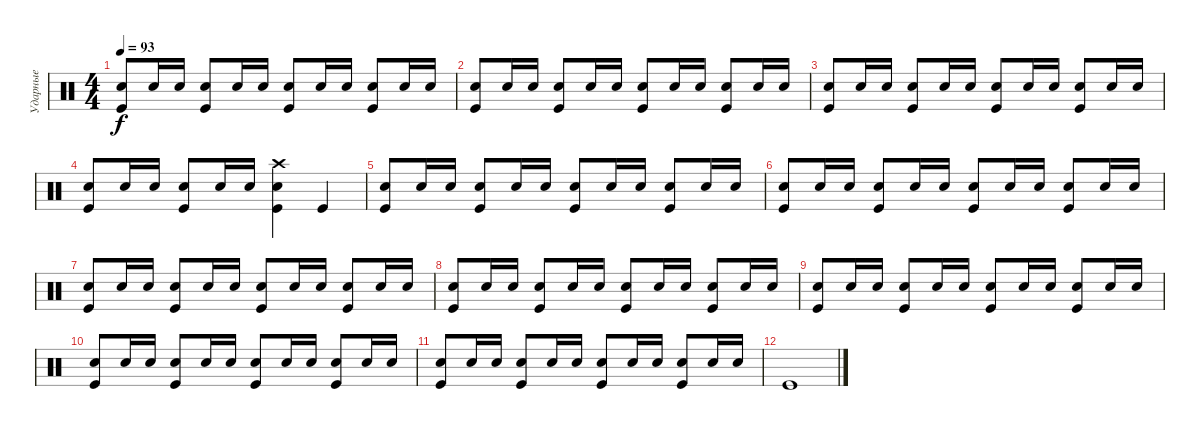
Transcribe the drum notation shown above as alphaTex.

\track ("Ударные" "Ударные") {instrument percussion}
\staff {score}
\articulation defaults
\ts (4 4)
\tempo 93
\clef neutral
\ks c
("Electric Snare (hit)" "Kick (hit)").8{dy f} "Electric Snare (hit)".16 "Electric Snare (hit)".16 ("Electric Snare (hit)" "Kick (hit)").8 "Electric Snare (hit)".16 "Electric Snare (hit)".16 ("Electric Snare (hit)" "Kick (hit)").8 "Electric Snare (hit)".16 "Electric Snare (hit)".16 ("Electric Snare (hit)" "Kick (hit)").8 "Electric Snare (hit)".16 "Electric Snare (hit)".16 |
("Electric Snare (hit)" "Kick (hit)").8 "Electric Snare (hit)".16 "Electric Snare (hit)".16 ("Electric Snare (hit)" "Kick (hit)").8 "Electric Snare (hit)".16 "Electric Snare (hit)".16 ("Electric Snare (hit)" "Kick (hit)").8 "Electric Snare (hit)".16 "Electric Snare (hit)".16 ("Electric Snare (hit)" "Kick (hit)").8 "Electric Snare (hit)".16 "Electric Snare (hit)".16 |
("Electric Snare (hit)" "Kick (hit)").8 "Electric Snare (hit)".16 "Electric Snare (hit)".16 ("Electric Snare (hit)" "Kick (hit)").8 "Electric Snare (hit)".16 "Electric Snare (hit)".16 ("Electric Snare (hit)" "Kick (hit)").8 "Electric Snare (hit)".16 "Electric Snare (hit)".16 ("Electric Snare (hit)" "Kick (hit)").8 "Electric Snare (hit)".16 "Electric Snare (hit)".16 |
("Electric Snare (hit)" "Kick (hit)").8 "Electric Snare (hit)".16 "Electric Snare (hit)".16 ("Electric Snare (hit)" "Kick (hit)").8 "Electric Snare (hit)".16 "Electric Snare (hit)".16 ("Electric Snare (hit)" "Crash high (hit)" "Kick (hit)").4 "Kick (hit)".4 |
("Electric Snare (hit)" "Kick (hit)").8 "Electric Snare (hit)".16 "Electric Snare (hit)".16 ("Electric Snare (hit)" "Kick (hit)").8 "Electric Snare (hit)".16 "Electric Snare (hit)".16 ("Electric Snare (hit)" "Kick (hit)").8 "Electric Snare (hit)".16 "Electric Snare (hit)".16 ("Electric Snare (hit)" "Kick (hit)").8 "Electric Snare (hit)".16 "Electric Snare (hit)".16 |
("Electric Snare (hit)" "Kick (hit)").8 "Electric Snare (hit)".16 "Electric Snare (hit)".16 ("Electric Snare (hit)" "Kick (hit)").8 "Electric Snare (hit)".16 "Electric Snare (hit)".16 ("Electric Snare (hit)" "Kick (hit)").8 "Electric Snare (hit)".16 "Electric Snare (hit)".16 ("Electric Snare (hit)" "Kick (hit)").8 "Electric Snare (hit)".16 "Electric Snare (hit)".16 |
("Electric Snare (hit)" "Kick (hit)").8 "Electric Snare (hit)".16 "Electric Snare (hit)".16 ("Electric Snare (hit)" "Kick (hit)").8 "Electric Snare (hit)".16 "Electric Snare (hit)".16 ("Electric Snare (hit)" "Kick (hit)").8 "Electric Snare (hit)".16 "Electric Snare (hit)".16 ("Electric Snare (hit)" "Kick (hit)").8 "Electric Snare (hit)".16 "Electric Snare (hit)".16 |
("Electric Snare (hit)" "Kick (hit)").8 "Electric Snare (hit)".16 "Electric Snare (hit)".16 ("Electric Snare (hit)" "Kick (hit)").8 "Electric Snare (hit)".16 "Electric Snare (hit)".16 ("Electric Snare (hit)" "Kick (hit)").8 "Electric Snare (hit)".16 "Electric Snare (hit)".16 ("Electric Snare (hit)" "Kick (hit)").8 "Electric Snare (hit)".16 "Electric Snare (hit)".16 |
("Electric Snare (hit)" "Kick (hit)").8 "Electric Snare (hit)".16 "Electric Snare (hit)".16 ("Electric Snare (hit)" "Kick (hit)").8 "Electric Snare (hit)".16 "Electric Snare (hit)".16 ("Electric Snare (hit)" "Kick (hit)").8 "Electric Snare (hit)".16 "Electric Snare (hit)".16 ("Electric Snare (hit)" "Kick (hit)").8 "Electric Snare (hit)".16 "Electric Snare (hit)".16 |
("Electric Snare (hit)" "Kick (hit)").8 "Electric Snare (hit)".16 "Electric Snare (hit)".16 ("Electric Snare (hit)" "Kick (hit)").8 "Electric Snare (hit)".16 "Electric Snare (hit)".16 ("Electric Snare (hit)" "Kick (hit)").8 "Electric Snare (hit)".16 "Electric Snare (hit)".16 ("Electric Snare (hit)" "Kick (hit)").8 "Electric Snare (hit)".16 "Electric Snare (hit)".16 |
("Electric Snare (hit)" "Kick (hit)").8 "Electric Snare (hit)".16 "Electric Snare (hit)".16 ("Electric Snare (hit)" "Kick (hit)").8 "Electric Snare (hit)".16 "Electric Snare (hit)".16 ("Electric Snare (hit)" "Kick (hit)").8 "Electric Snare (hit)".16 "Electric Snare (hit)".16 ("Electric Snare (hit)" "Kick (hit)").8 "Electric Snare (hit)".16 "Electric Snare (hit)".16 |
"Kick (hit)".1
